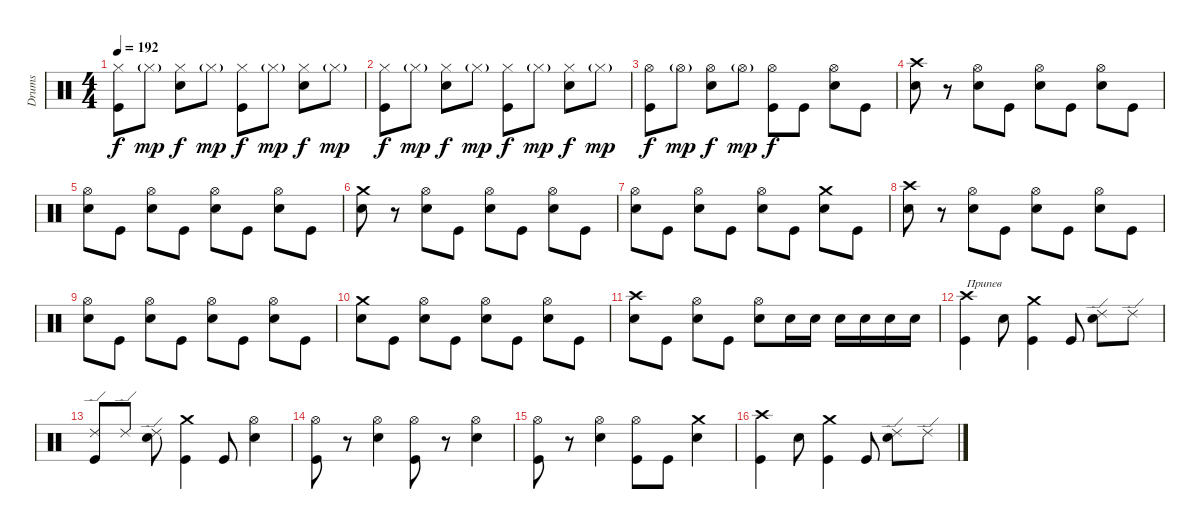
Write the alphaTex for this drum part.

\track ("Drums" "Drums") {instrument percussion}
\staff {score}
\articulation defaults
\ts (4 4)
\tempo 192
\clef neutral
\ks c
("Hi-Hat (closed)" "Kick (hit)").8{dy f} "Hi-Hat (closed)"{g}.8{dy mp} ("Hi-Hat (closed)" "Electric Snare (hit)").8{dy f} "Hi-Hat (closed)"{g}.8{dy mp} ("Hi-Hat (closed)" "Kick (hit)").8{dy f} "Hi-Hat (closed)"{g}.8{dy mp} ("Hi-Hat (closed)" "Electric Snare (hit)").8{dy f} "Hi-Hat (closed)"{g}.8{dy mp} |
("Hi-Hat (closed)" "Kick (hit)").8{dy f} "Hi-Hat (closed)"{g}.8{dy mp} ("Hi-Hat (closed)" "Electric Snare (hit)").8{dy f} "Hi-Hat (closed)"{g}.8{dy mp} ("Hi-Hat (closed)" "Kick (hit)").8{dy f} "Hi-Hat (closed)"{g}.8{dy mp} ("Hi-Hat (closed)" "Electric Snare (hit)").8{dy f} "Hi-Hat (closed)"{g}.8{dy mp} |
("Hi-Hat (open)" "Kick (hit)").8{dy f} "Hi-Hat (open)"{g}.8{dy mp} ("Hi-Hat (open)" "Electric Snare (hit)").8{dy f} "Hi-Hat (open)"{g}.8{dy mp} ("Hi-Hat (open)" "Kick (hit)").8{dy f} "Kick (hit)".8 ("Hi-Hat (open)" "Electric Snare (hit)").8 "Kick (hit)".8 |
("Crash high (hit)" "Electric Snare (hit)").8 r.8 ("Hi-Hat (open)" "Electric Snare (hit)").8 "Kick (hit)".8 ("Hi-Hat (open)" "Electric Snare (hit)").8 "Kick (hit)".8 ("Hi-Hat (open)" "Electric Snare (hit)").8 "Kick (hit)".8 |
("Hi-Hat (open)" "Electric Snare (hit)").8 "Kick (hit)".8 ("Hi-Hat (open)" "Electric Snare (hit)").8 "Kick (hit)".8 ("Hi-Hat (open)" "Electric Snare (hit)").8 "Kick (hit)".8 ("Hi-Hat (open)" "Electric Snare (hit)").8 "Kick (hit)".8 |
("Crash medium (hit)" "Electric Snare (hit)").8 r.8 ("Hi-Hat (open)" "Electric Snare (hit)").8 "Kick (hit)".8 ("Hi-Hat (open)" "Electric Snare (hit)").8 "Kick (hit)".8 ("Hi-Hat (open)" "Electric Snare (hit)").8 "Kick (hit)".8 |
("Hi-Hat (open)" "Electric Snare (hit)").8 "Kick (hit)".8 ("Hi-Hat (open)" "Electric Snare (hit)").8 "Kick (hit)".8 ("Hi-Hat (open)" "Electric Snare (hit)").8 "Kick (hit)".8 ("Crash medium (hit)" "Electric Snare (hit)").8 "Kick (hit)".8 |
("Crash high (hit)" "Electric Snare (hit)").8 r.8 ("Hi-Hat (open)" "Electric Snare (hit)").8 "Kick (hit)".8 ("Hi-Hat (open)" "Electric Snare (hit)").8 "Kick (hit)".8 ("Hi-Hat (open)" "Electric Snare (hit)").8 "Kick (hit)".8 |
("Hi-Hat (open)" "Electric Snare (hit)").8 "Kick (hit)".8 ("Hi-Hat (open)" "Electric Snare (hit)").8 "Kick (hit)".8 ("Hi-Hat (open)" "Electric Snare (hit)").8 "Kick (hit)".8 ("Hi-Hat (open)" "Electric Snare (hit)").8 "Kick (hit)".8 |
("Crash medium (hit)" "Electric Snare (hit)").8 "Kick (hit)".8 ("Hi-Hat (open)" "Electric Snare (hit)").8 "Kick (hit)".8 ("Hi-Hat (open)" "Electric Snare (hit)").8 "Kick (hit)".8 ("Hi-Hat (open)" "Electric Snare (hit)").8 "Kick (hit)".8 |
("Crash high (hit)" "Electric Snare (hit)").8 "Kick (hit)".8 ("Hi-Hat (open)" "Electric Snare (hit)").8 "Kick (hit)".8 ("Hi-Hat (open)" "Electric Snare (hit)").8 "Electric Snare (hit)".16 "Electric Snare (hit)".16 "Electric Snare (hit)".16 "Electric Snare (hit)".16 "Electric Snare (hit)".16 "Electric Snare (hit)".16 |
("Crash high (hit)" "Kick (hit)").4{txt "Припев"} "Electric Snare (hit)".8 ("Crash medium (hit)" "Kick (hit)").4 "Kick (hit)".8 ("Ride (edge) 2" "Electric Snare (hit)").8 "Ride (edge) 2".8 |
("Ride (edge) 2" "Kick (hit)").8 "Ride (edge) 2".8 ("Ride (edge) 2" "Electric Snare (hit)").8 ("Crash medium (hit)" "Kick (hit)").4 "Kick (hit)".8 ("Hi-Hat (open)" "Electric Snare (hit)").4 |
("Hi-Hat (open)" "Kick (hit)").8 r.8 ("Hi-Hat (open)" "Electric Snare (hit)").4 ("Hi-Hat (open)" "Kick (hit)").8 r.8 ("Hi-Hat (open)" "Electric Snare (hit)").4 |
("Hi-Hat (open)" "Kick (hit)").8 r.8 ("Hi-Hat (open)" "Electric Snare (hit)").4 ("Hi-Hat (open)" "Kick (hit)").8 "Kick (hit)".8 ("Crash medium (hit)" "Electric Snare (hit)").4 |
("Crash high (hit)" "Kick (hit)").4 "Electric Snare (hit)".8 ("Crash medium (hit)" "Kick (hit)").4 "Kick (hit)".8 ("Ride (edge) 2" "Electric Snare (hit)").8 "Ride (edge) 2".8
